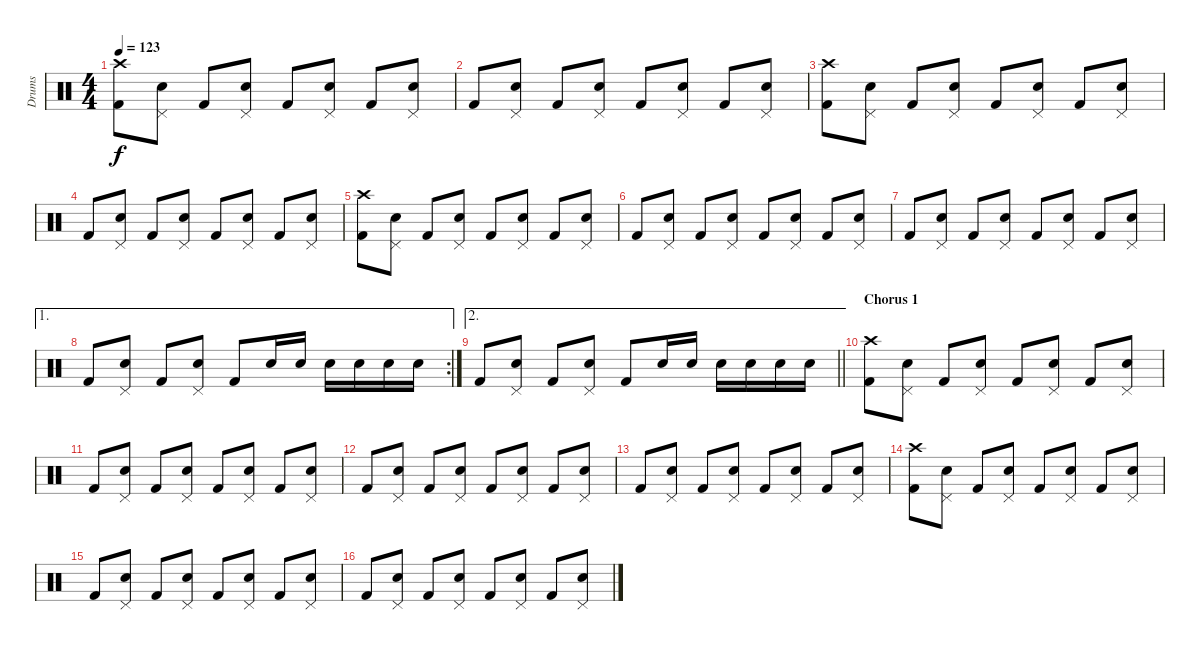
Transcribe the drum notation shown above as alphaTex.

\track ("Drums" "Drums") {instrument percussion}
\staff {score}
\articulation defaults
\ts (4 4)
\tempo 123
\clef neutral
\ks c
("Crash high (hit)" "Kick (hit) 2").8{dy f} ("Pedal Hi-Hat (hit)" "Snare (hit) 2").8 "Kick (hit) 2".8 ("Pedal Hi-Hat (hit)" "Snare (hit) 2").8 "Kick (hit) 2".8 ("Pedal Hi-Hat (hit)" "Snare (hit) 2").8 "Kick (hit) 2".8 ("Pedal Hi-Hat (hit)" "Snare (hit) 2").8 |
"Kick (hit) 2".8 ("Pedal Hi-Hat (hit)" "Snare (hit) 2").8 "Kick (hit) 2".8 ("Pedal Hi-Hat (hit)" "Snare (hit) 2").8 "Kick (hit) 2".8 ("Pedal Hi-Hat (hit)" "Snare (hit) 2").8 "Kick (hit) 2".8 ("Pedal Hi-Hat (hit)" "Snare (hit) 2").8 |
("Crash high (hit)" "Kick (hit) 2").8 ("Pedal Hi-Hat (hit)" "Snare (hit) 2").8 "Kick (hit) 2".8 ("Pedal Hi-Hat (hit)" "Snare (hit) 2").8 "Kick (hit) 2".8 ("Pedal Hi-Hat (hit)" "Snare (hit) 2").8 "Kick (hit) 2".8 ("Pedal Hi-Hat (hit)" "Snare (hit) 2").8 |
"Kick (hit) 2".8 ("Pedal Hi-Hat (hit)" "Snare (hit) 2").8 "Kick (hit) 2".8 ("Pedal Hi-Hat (hit)" "Snare (hit) 2").8 "Kick (hit) 2".8 ("Pedal Hi-Hat (hit)" "Snare (hit) 2").8 "Kick (hit) 2".8 ("Pedal Hi-Hat (hit)" "Snare (hit) 2").8 |
("Crash high (hit)" "Kick (hit) 2").8 ("Pedal Hi-Hat (hit)" "Snare (hit) 2").8 "Kick (hit) 2".8 ("Pedal Hi-Hat (hit)" "Snare (hit) 2").8 "Kick (hit) 2".8 ("Pedal Hi-Hat (hit)" "Snare (hit) 2").8 "Kick (hit) 2".8 ("Pedal Hi-Hat (hit)" "Snare (hit) 2").8 |
"Kick (hit) 2".8 ("Pedal Hi-Hat (hit)" "Snare (hit) 2").8 "Kick (hit) 2".8 ("Pedal Hi-Hat (hit)" "Snare (hit) 2").8 "Kick (hit) 2".8 ("Pedal Hi-Hat (hit)" "Snare (hit) 2").8 "Kick (hit) 2".8 ("Pedal Hi-Hat (hit)" "Snare (hit) 2").8 |
"Kick (hit) 2".8 ("Pedal Hi-Hat (hit)" "Snare (hit) 2").8 "Kick (hit) 2".8 ("Pedal Hi-Hat (hit)" "Snare (hit) 2").8 "Kick (hit) 2".8 ("Pedal Hi-Hat (hit)" "Snare (hit) 2").8 "Kick (hit) 2".8 ("Pedal Hi-Hat (hit)" "Snare (hit) 2").8 |
\ae 1
\rc 2 "Kick (hit) 2".8
("Pedal Hi-Hat (hit)" "Snare (hit) 2").8 "Kick (hit) 2".8 ("Pedal Hi-Hat (hit)" "Snare (hit) 2").8 "Kick (hit) 2".8 "Snare (hit) 2".16 "Snare (hit) 2".16 "Snare (hit) 2".16 "Snare (hit) 2".16 "Snare (hit) 2".16 "Snare (hit) 2".16 |
\ae 2
\barLineRight lightlight "Kick (hit) 2".8
("Pedal Hi-Hat (hit)" "Snare (hit) 2").8 "Kick (hit) 2".8 ("Pedal Hi-Hat (hit)" "Snare (hit) 2").8 "Kick (hit) 2".8 "Snare (hit) 2".16 "Snare (hit) 2".16 "Snare (hit) 2".16 "Snare (hit) 2".16 "Snare (hit) 2".16 "Snare (hit) 2".16 |
\section ("" "Chorus 1")
("Crash high (hit)" "Kick (hit) 2").8 ("Pedal Hi-Hat (hit)" "Snare (hit) 2").8 "Kick (hit) 2".8 ("Pedal Hi-Hat (hit)" "Snare (hit) 2").8 "Kick (hit) 2".8 ("Pedal Hi-Hat (hit)" "Snare (hit) 2").8 "Kick (hit) 2".8 ("Pedal Hi-Hat (hit)" "Snare (hit) 2").8 |
"Kick (hit) 2".8 ("Pedal Hi-Hat (hit)" "Snare (hit) 2").8 "Kick (hit) 2".8 ("Pedal Hi-Hat (hit)" "Snare (hit) 2").8 "Kick (hit) 2".8 ("Pedal Hi-Hat (hit)" "Snare (hit) 2").8 "Kick (hit) 2".8 ("Pedal Hi-Hat (hit)" "Snare (hit) 2").8 |
"Kick (hit) 2".8 ("Pedal Hi-Hat (hit)" "Snare (hit) 2").8 "Kick (hit) 2".8 ("Pedal Hi-Hat (hit)" "Snare (hit) 2").8 "Kick (hit) 2".8 ("Pedal Hi-Hat (hit)" "Snare (hit) 2").8 "Kick (hit) 2".8 ("Pedal Hi-Hat (hit)" "Snare (hit) 2").8 |
"Kick (hit) 2".8 ("Pedal Hi-Hat (hit)" "Snare (hit) 2").8 "Kick (hit) 2".8 ("Pedal Hi-Hat (hit)" "Snare (hit) 2").8 "Kick (hit) 2".8 ("Pedal Hi-Hat (hit)" "Snare (hit) 2").8 "Kick (hit) 2".8 ("Pedal Hi-Hat (hit)" "Snare (hit) 2").8 |
("Crash high (hit)" "Kick (hit) 2").8 ("Pedal Hi-Hat (hit)" "Snare (hit) 2").8 "Kick (hit) 2".8 ("Pedal Hi-Hat (hit)" "Snare (hit) 2").8 "Kick (hit) 2".8 ("Pedal Hi-Hat (hit)" "Snare (hit) 2").8 "Kick (hit) 2".8 ("Pedal Hi-Hat (hit)" "Snare (hit) 2").8 |
"Kick (hit) 2".8 ("Pedal Hi-Hat (hit)" "Snare (hit) 2").8 "Kick (hit) 2".8 ("Pedal Hi-Hat (hit)" "Snare (hit) 2").8 "Kick (hit) 2".8 ("Pedal Hi-Hat (hit)" "Snare (hit) 2").8 "Kick (hit) 2".8 ("Pedal Hi-Hat (hit)" "Snare (hit) 2").8 |
"Kick (hit) 2".8 ("Pedal Hi-Hat (hit)" "Snare (hit) 2").8 "Kick (hit) 2".8 ("Pedal Hi-Hat (hit)" "Snare (hit) 2").8 "Kick (hit) 2".8 ("Pedal Hi-Hat (hit)" "Snare (hit) 2").8 "Kick (hit) 2".8 ("Pedal Hi-Hat (hit)" "Snare (hit) 2").8
